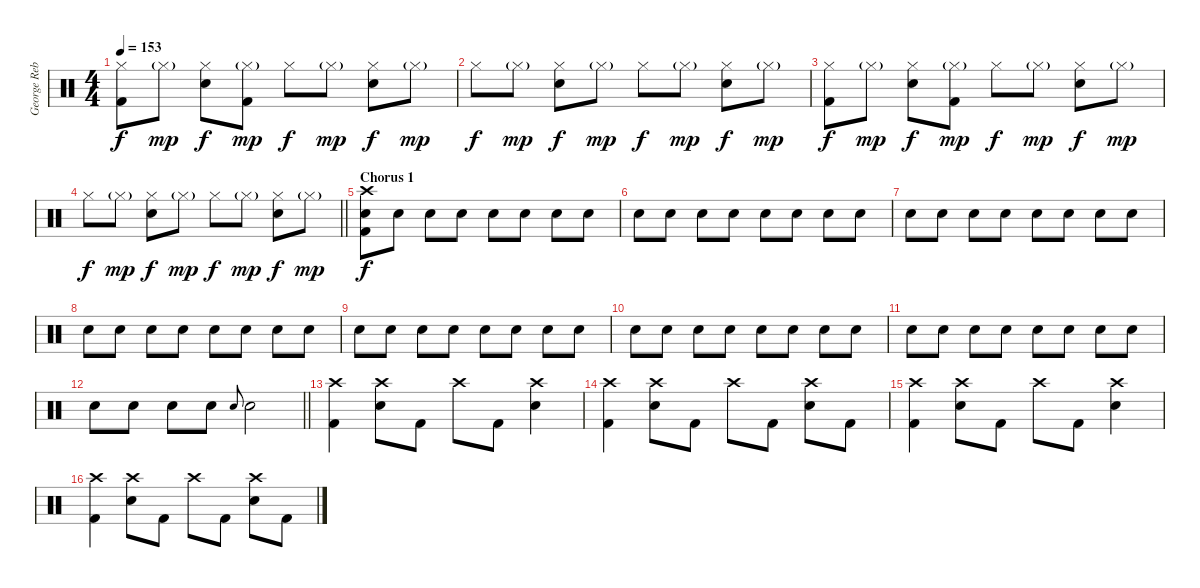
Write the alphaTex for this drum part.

\track ("George Rebelo (Drums)" "George Reb") {instrument percussion}
\staff {score}
\articulation defaults
\ts (4 4)
\tempo 153
\clef neutral
\ks c
("Hi-Hat (closed)" "Kick (hit) 2").8{dy f} "Hi-Hat (closed)"{g}.8{dy mp} ("Hi-Hat (closed)" "Electric Snare (hit)").8{dy f} ("Hi-Hat (closed)"{g} "Kick (hit) 2").8{dy mp} "Hi-Hat (closed)".8{dy f} "Hi-Hat (closed)"{g}.8{dy mp} ("Hi-Hat (closed)" "Electric Snare (hit)").8{dy f} "Hi-Hat (closed)"{g}.8{dy mp} |
"Hi-Hat (closed)".8{dy f} "Hi-Hat (closed)"{g}.8{dy mp} ("Hi-Hat (closed)" "Electric Snare (hit)").8{dy f} "Hi-Hat (closed)"{g}.8{dy mp} "Hi-Hat (closed)".8{dy f} "Hi-Hat (closed)"{g}.8{dy mp} ("Hi-Hat (closed)" "Electric Snare (hit)").8{dy f} "Hi-Hat (closed)"{g}.8{dy mp} |
("Hi-Hat (closed)" "Kick (hit) 2").8{dy f} "Hi-Hat (closed)"{g}.8{dy mp} ("Hi-Hat (closed)" "Electric Snare (hit)").8{dy f} ("Hi-Hat (closed)"{g} "Kick (hit) 2").8{dy mp} "Hi-Hat (closed)".8{dy f} "Hi-Hat (closed)"{g}.8{dy mp} ("Hi-Hat (closed)" "Electric Snare (hit)").8{dy f} "Hi-Hat (closed)"{g}.8{dy mp} |
\barLineRight lightlight "Hi-Hat (closed)".8{dy f} "Hi-Hat (closed)"{g}.8{dy mp}
("Hi-Hat (closed)" "Electric Snare (hit)").8{dy f} "Hi-Hat (closed)"{g}.8{dy mp} "Hi-Hat (closed)".8{dy f} "Hi-Hat (closed)"{g}.8{dy mp} ("Hi-Hat (closed)" "Electric Snare (hit)").8{dy f} "Hi-Hat (closed)"{g}.8{dy mp} |
\section ("" "Chorus 1")
("Crash high (hit)" "Electric Snare (hit)" "Kick (hit) 2").8{dy f} "Electric Snare (hit)".8 "Electric Snare (hit)".8 "Electric Snare (hit)".8 "Electric Snare (hit)".8 "Electric Snare (hit)".8 "Electric Snare (hit)".8 "Electric Snare (hit)".8 |
"Electric Snare (hit)".8 "Electric Snare (hit)".8 "Electric Snare (hit)".8 "Electric Snare (hit)".8 "Electric Snare (hit)".8 "Electric Snare (hit)".8 "Electric Snare (hit)".8 "Electric Snare (hit)".8 |
"Electric Snare (hit)".8 "Electric Snare (hit)".8 "Electric Snare (hit)".8 "Electric Snare (hit)".8 "Electric Snare (hit)".8 "Electric Snare (hit)".8 "Electric Snare (hit)".8 "Electric Snare (hit)".8 |
"Electric Snare (hit)".8 "Electric Snare (hit)".8 "Electric Snare (hit)".8 "Electric Snare (hit)".8 "Electric Snare (hit)".8 "Electric Snare (hit)".8 "Electric Snare (hit)".8 "Electric Snare (hit)".8 |
"Electric Snare (hit)".8 "Electric Snare (hit)".8 "Electric Snare (hit)".8 "Electric Snare (hit)".8 "Electric Snare (hit)".8 "Electric Snare (hit)".8 "Electric Snare (hit)".8 "Electric Snare (hit)".8 |
"Electric Snare (hit)".8 "Electric Snare (hit)".8 "Electric Snare (hit)".8 "Electric Snare (hit)".8 "Electric Snare (hit)".8 "Electric Snare (hit)".8 "Electric Snare (hit)".8 "Electric Snare (hit)".8 |
"Electric Snare (hit)".8 "Electric Snare (hit)".8 "Electric Snare (hit)".8 "Electric Snare (hit)".8 "Electric Snare (hit)".8 "Electric Snare (hit)".8 "Electric Snare (hit)".8 "Electric Snare (hit)".8 |
\barLineRight lightlight "Electric Snare (hit)".8 "Electric Snare (hit)".8 "Electric Snare (hit)".8 "Electric Snare (hit)".8 "Electric Snare (hit)".8{gr onbeat} "Electric Snare (hit)".2
|
("Crash high (hit)" "Kick (hit) 2").4 ("Crash high (hit)" "Electric Snare (hit)").8 "Kick (hit) 2".8 "Crash high (hit)".8 "Kick (hit) 2".8 ("Crash high (hit)" "Electric Snare (hit)").4 |
("Crash high (hit)" "Kick (hit) 2").4 ("Crash high (hit)" "Electric Snare (hit)").8 "Kick (hit) 2".8 "Crash high (hit)".8 "Kick (hit) 2".8 ("Crash high (hit)" "Electric Snare (hit)").8 "Kick (hit) 2".8 |
("Crash high (hit)" "Kick (hit) 2").4 ("Crash high (hit)" "Electric Snare (hit)").8 "Kick (hit) 2".8 "Crash high (hit)".8 "Kick (hit) 2".8 ("Crash high (hit)" "Electric Snare (hit)").4 |
("Crash high (hit)" "Kick (hit) 2").4 ("Crash high (hit)" "Electric Snare (hit)").8 "Kick (hit) 2".8 "Crash high (hit)".8 "Kick (hit) 2".8 ("Crash high (hit)" "Electric Snare (hit)").8 "Kick (hit) 2".8
